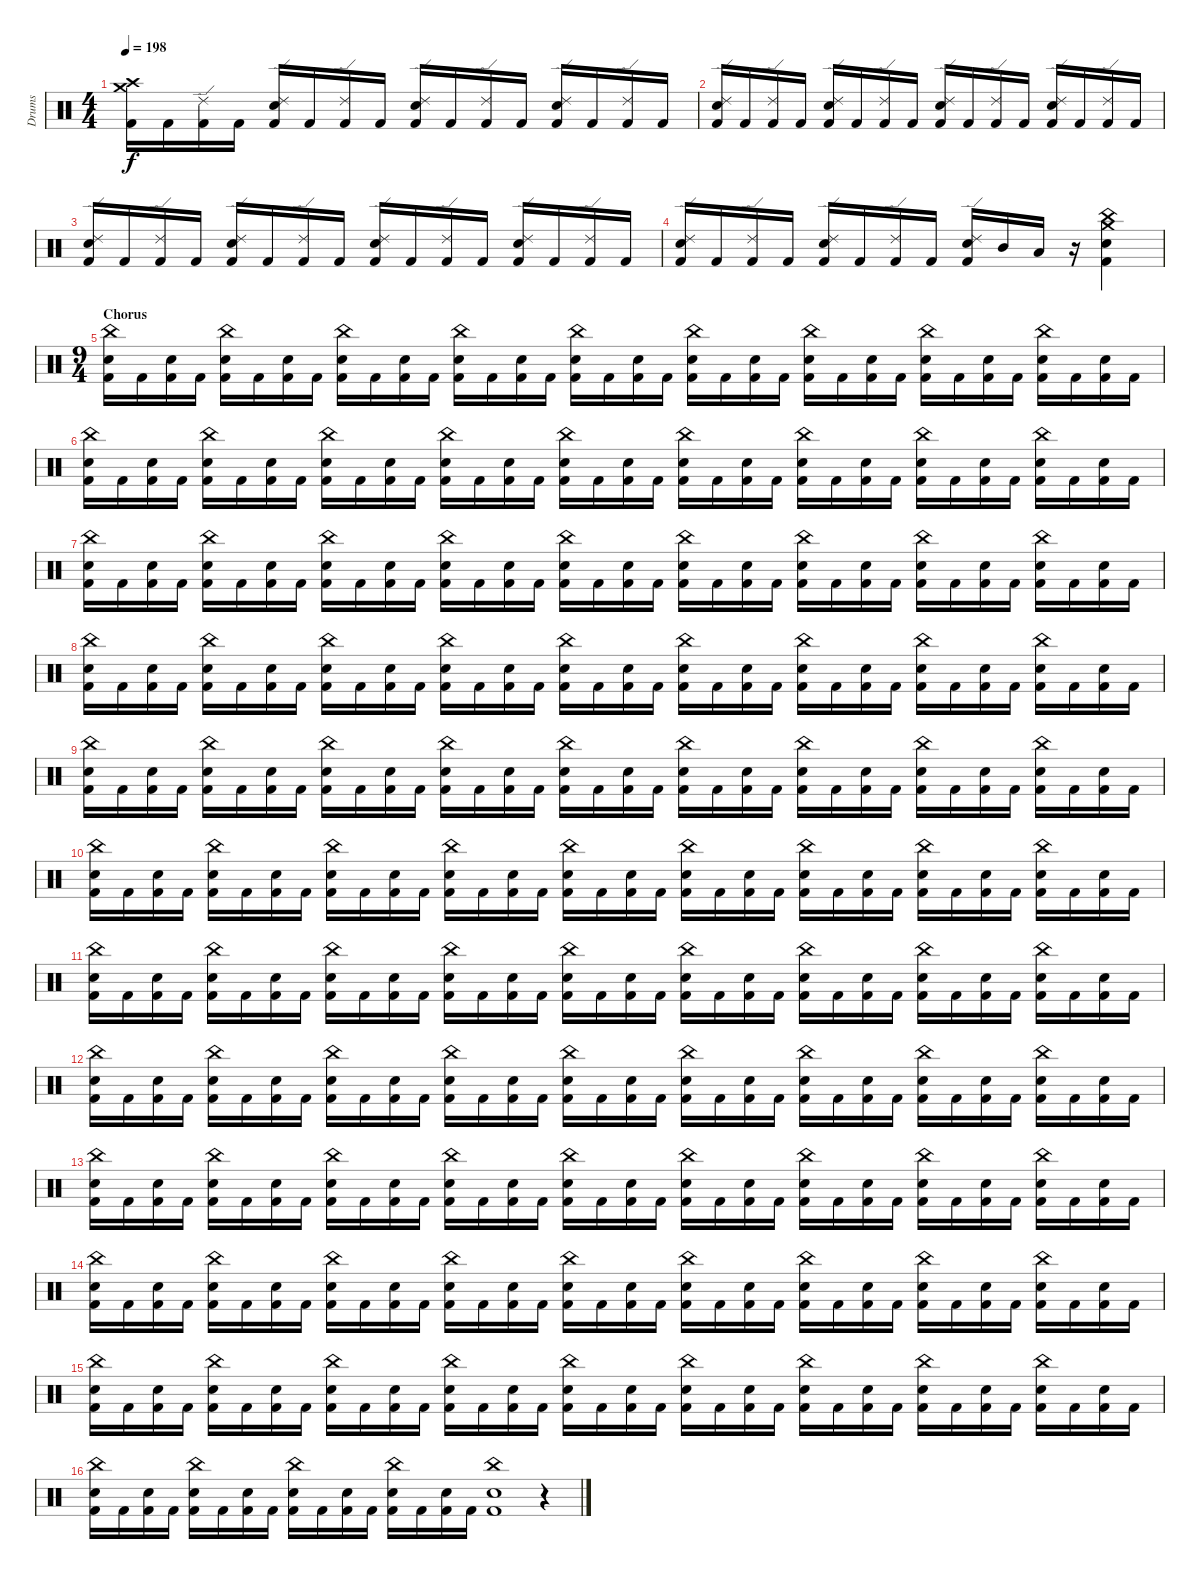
\track ("Drums" "Drums") {instrument percussion}
\staff {score}
\articulation defaults
\ts (4 4)
\tempo 198
\clef neutral
\ks c
("Kick (hit) 2" "Crash high (hit)" "Crash medium (hit)").16{dy f} "Kick (hit) 2".16 ("Kick (hit) 2" "Ride (edge) 2").16 "Kick (hit) 2".16 ("Kick (hit) 2" "Snare (hit) 2" "Ride (edge) 2").16 "Kick (hit) 2".16 ("Kick (hit) 2" "Ride (edge) 2").16 "Kick (hit) 2".16 ("Kick (hit) 2" "Snare (hit) 2" "Ride (edge) 2").16 "Kick (hit) 2".16 ("Kick (hit) 2" "Ride (edge) 2").16 "Kick (hit) 2".16 ("Kick (hit) 2" "Snare (hit) 2" "Ride (edge) 2").16 "Kick (hit) 2".16 ("Kick (hit) 2" "Ride (edge) 2").16 "Kick (hit) 2".16 |
("Kick (hit) 2" "Snare (hit) 2" "Ride (edge) 2").16 "Kick (hit) 2".16 ("Kick (hit) 2" "Ride (edge) 2").16 "Kick (hit) 2".16 ("Kick (hit) 2" "Snare (hit) 2" "Ride (edge) 2").16 "Kick (hit) 2".16 ("Kick (hit) 2" "Ride (edge) 2").16 "Kick (hit) 2".16 ("Kick (hit) 2" "Snare (hit) 2" "Ride (edge) 2").16 "Kick (hit) 2".16 ("Kick (hit) 2" "Ride (edge) 2").16 "Kick (hit) 2".16 ("Kick (hit) 2" "Snare (hit) 2" "Ride (edge) 2").16 "Kick (hit) 2".16 ("Kick (hit) 2" "Ride (edge) 2").16 "Kick (hit) 2".16 |
("Kick (hit) 2" "Snare (hit) 2" "Ride (edge) 2").16 "Kick (hit) 2".16 ("Kick (hit) 2" "Ride (edge) 2").16 "Kick (hit) 2".16 ("Kick (hit) 2" "Snare (hit) 2" "Ride (edge) 2").16 "Kick (hit) 2".16 ("Kick (hit) 2" "Ride (edge) 2").16 "Kick (hit) 2".16 ("Kick (hit) 2" "Snare (hit) 2" "Ride (edge) 2").16 "Kick (hit) 2".16 ("Kick (hit) 2" "Ride (edge) 2").16 "Kick (hit) 2".16 ("Kick (hit) 2" "Snare (hit) 2" "Ride (edge) 2").16 "Kick (hit) 2".16 ("Kick (hit) 2" "Ride (edge) 2").16 "Kick (hit) 2".16 |
("Kick (hit) 2" "Snare (hit) 2" "Ride (edge) 2").16 "Kick (hit) 2".16 ("Kick (hit) 2" "Ride (edge) 2").16 "Kick (hit) 2".16 ("Kick (hit) 2" "Snare (hit) 2" "Ride (edge) 2").16 "Kick (hit) 2".16 ("Kick (hit) 2" "Ride (edge) 2").16 "Kick (hit) 2".16 ("Kick (hit) 2" "Snare (hit) 2" "Ride (edge) 2").16 "Mid Tom (hit)".16 "Low Tom (hit)".16 r.16 ("Kick (hit) 2" "Snare (hit) 2" "China (hit)" "Crash medium (hit)").4 |
\ts (9 4)
\section ("" "Chorus")
("Kick (hit) 2" "Snare (hit) 2" "China (hit)").16 "Kick (hit) 2".16 ("Kick (hit) 2" "Snare (hit) 2").16 "Kick (hit) 2".16 ("Kick (hit) 2" "Snare (hit) 2" "China (hit)").16 "Kick (hit) 2".16 ("Kick (hit) 2" "Snare (hit) 2").16 "Kick (hit) 2".16 ("Kick (hit) 2" "Snare (hit) 2" "China (hit)").16 "Kick (hit) 2".16 ("Kick (hit) 2" "Snare (hit) 2").16 "Kick (hit) 2".16 ("Kick (hit) 2" "Snare (hit) 2" "China (hit)").16 "Kick (hit) 2".16 ("Kick (hit) 2" "Snare (hit) 2").16 "Kick (hit) 2".16 ("Kick (hit) 2" "Snare (hit) 2" "China (hit)").16 "Kick (hit) 2".16 ("Kick (hit) 2" "Snare (hit) 2").16 "Kick (hit) 2".16 ("Kick (hit) 2" "Snare (hit) 2" "China (hit)").16 "Kick (hit) 2".16 ("Kick (hit) 2" "Snare (hit) 2").16 "Kick (hit) 2".16 ("Kick (hit) 2" "Snare (hit) 2" "China (hit)").16 "Kick (hit) 2".16 ("Kick (hit) 2" "Snare (hit) 2").16 "Kick (hit) 2".16 ("Kick (hit) 2" "Snare (hit) 2" "China (hit)").16 "Kick (hit) 2".16 ("Kick (hit) 2" "Snare (hit) 2").16 "Kick (hit) 2".16 ("Kick (hit) 2" "Snare (hit) 2" "China (hit)").16 "Kick (hit) 2".16 ("Kick (hit) 2" "Snare (hit) 2").16 "Kick (hit) 2".16 |
("Kick (hit) 2" "Snare (hit) 2" "China (hit)").16 "Kick (hit) 2".16 ("Kick (hit) 2" "Snare (hit) 2").16 "Kick (hit) 2".16 ("Kick (hit) 2" "Snare (hit) 2" "China (hit)").16 "Kick (hit) 2".16 ("Kick (hit) 2" "Snare (hit) 2").16 "Kick (hit) 2".16 ("Kick (hit) 2" "Snare (hit) 2" "China (hit)").16 "Kick (hit) 2".16 ("Kick (hit) 2" "Snare (hit) 2").16 "Kick (hit) 2".16 ("Kick (hit) 2" "Snare (hit) 2" "China (hit)").16 "Kick (hit) 2".16 ("Kick (hit) 2" "Snare (hit) 2").16 "Kick (hit) 2".16 ("Kick (hit) 2" "Snare (hit) 2" "China (hit)").16 "Kick (hit) 2".16 ("Kick (hit) 2" "Snare (hit) 2").16 "Kick (hit) 2".16 ("Kick (hit) 2" "Snare (hit) 2" "China (hit)").16 "Kick (hit) 2".16 ("Kick (hit) 2" "Snare (hit) 2").16 "Kick (hit) 2".16 ("Kick (hit) 2" "Snare (hit) 2" "China (hit)").16 "Kick (hit) 2".16 ("Kick (hit) 2" "Snare (hit) 2").16 "Kick (hit) 2".16 ("Kick (hit) 2" "Snare (hit) 2" "China (hit)").16 "Kick (hit) 2".16 ("Kick (hit) 2" "Snare (hit) 2").16 "Kick (hit) 2".16 ("Kick (hit) 2" "Snare (hit) 2" "China (hit)").16 "Kick (hit) 2".16 ("Kick (hit) 2" "Snare (hit) 2").16 "Kick (hit) 2".16 |
("Kick (hit) 2" "Snare (hit) 2" "China (hit)").16 "Kick (hit) 2".16 ("Kick (hit) 2" "Snare (hit) 2").16 "Kick (hit) 2".16 ("Kick (hit) 2" "Snare (hit) 2" "China (hit)").16 "Kick (hit) 2".16 ("Kick (hit) 2" "Snare (hit) 2").16 "Kick (hit) 2".16 ("Kick (hit) 2" "Snare (hit) 2" "China (hit)").16 "Kick (hit) 2".16 ("Kick (hit) 2" "Snare (hit) 2").16 "Kick (hit) 2".16 ("Kick (hit) 2" "Snare (hit) 2" "China (hit)").16 "Kick (hit) 2".16 ("Kick (hit) 2" "Snare (hit) 2").16 "Kick (hit) 2".16 ("Kick (hit) 2" "Snare (hit) 2" "China (hit)").16 "Kick (hit) 2".16 ("Kick (hit) 2" "Snare (hit) 2").16 "Kick (hit) 2".16 ("Kick (hit) 2" "Snare (hit) 2" "China (hit)").16 "Kick (hit) 2".16 ("Kick (hit) 2" "Snare (hit) 2").16 "Kick (hit) 2".16 ("Kick (hit) 2" "Snare (hit) 2" "China (hit)").16 "Kick (hit) 2".16 ("Kick (hit) 2" "Snare (hit) 2").16 "Kick (hit) 2".16 ("Kick (hit) 2" "Snare (hit) 2" "China (hit)").16 "Kick (hit) 2".16 ("Kick (hit) 2" "Snare (hit) 2").16 "Kick (hit) 2".16 ("Kick (hit) 2" "Snare (hit) 2" "China (hit)").16 "Kick (hit) 2".16 ("Kick (hit) 2" "Snare (hit) 2").16 "Kick (hit) 2".16 |
("Kick (hit) 2" "Snare (hit) 2" "China (hit)").16 "Kick (hit) 2".16 ("Kick (hit) 2" "Snare (hit) 2").16 "Kick (hit) 2".16 ("Kick (hit) 2" "Snare (hit) 2" "China (hit)").16 "Kick (hit) 2".16 ("Kick (hit) 2" "Snare (hit) 2").16 "Kick (hit) 2".16 ("Kick (hit) 2" "Snare (hit) 2" "China (hit)").16 "Kick (hit) 2".16 ("Kick (hit) 2" "Snare (hit) 2").16 "Kick (hit) 2".16 ("Kick (hit) 2" "Snare (hit) 2" "China (hit)").16 "Kick (hit) 2".16 ("Kick (hit) 2" "Snare (hit) 2").16 "Kick (hit) 2".16 ("Kick (hit) 2" "Snare (hit) 2" "China (hit)").16 "Kick (hit) 2".16 ("Kick (hit) 2" "Snare (hit) 2").16 "Kick (hit) 2".16 ("Kick (hit) 2" "Snare (hit) 2" "China (hit)").16 "Kick (hit) 2".16 ("Kick (hit) 2" "Snare (hit) 2").16 "Kick (hit) 2".16 ("Kick (hit) 2" "Snare (hit) 2" "China (hit)").16 "Kick (hit) 2".16 ("Kick (hit) 2" "Snare (hit) 2").16 "Kick (hit) 2".16 ("Kick (hit) 2" "Snare (hit) 2" "China (hit)").16 "Kick (hit) 2".16 ("Kick (hit) 2" "Snare (hit) 2").16 "Kick (hit) 2".16 ("Kick (hit) 2" "Snare (hit) 2" "China (hit)").16 "Kick (hit) 2".16 ("Kick (hit) 2" "Snare (hit) 2").16 "Kick (hit) 2".16 |
("Kick (hit) 2" "Snare (hit) 2" "China (hit)").16 "Kick (hit) 2".16 ("Kick (hit) 2" "Snare (hit) 2").16 "Kick (hit) 2".16 ("Kick (hit) 2" "Snare (hit) 2" "China (hit)").16 "Kick (hit) 2".16 ("Kick (hit) 2" "Snare (hit) 2").16 "Kick (hit) 2".16 ("Kick (hit) 2" "Snare (hit) 2" "China (hit)").16 "Kick (hit) 2".16 ("Kick (hit) 2" "Snare (hit) 2").16 "Kick (hit) 2".16 ("Kick (hit) 2" "Snare (hit) 2" "China (hit)").16 "Kick (hit) 2".16 ("Kick (hit) 2" "Snare (hit) 2").16 "Kick (hit) 2".16 ("Kick (hit) 2" "Snare (hit) 2" "China (hit)").16 "Kick (hit) 2".16 ("Kick (hit) 2" "Snare (hit) 2").16 "Kick (hit) 2".16 ("Kick (hit) 2" "Snare (hit) 2" "China (hit)").16 "Kick (hit) 2".16 ("Kick (hit) 2" "Snare (hit) 2").16 "Kick (hit) 2".16 ("Kick (hit) 2" "Snare (hit) 2" "China (hit)").16 "Kick (hit) 2".16 ("Kick (hit) 2" "Snare (hit) 2").16 "Kick (hit) 2".16 ("Kick (hit) 2" "Snare (hit) 2" "China (hit)").16 "Kick (hit) 2".16 ("Kick (hit) 2" "Snare (hit) 2").16 "Kick (hit) 2".16 ("Kick (hit) 2" "Snare (hit) 2" "China (hit)").16 "Kick (hit) 2".16 ("Kick (hit) 2" "Snare (hit) 2").16 "Kick (hit) 2".16 |
("Kick (hit) 2" "Snare (hit) 2" "China (hit)").16 "Kick (hit) 2".16 ("Kick (hit) 2" "Snare (hit) 2").16 "Kick (hit) 2".16 ("Kick (hit) 2" "Snare (hit) 2" "China (hit)").16 "Kick (hit) 2".16 ("Kick (hit) 2" "Snare (hit) 2").16 "Kick (hit) 2".16 ("Kick (hit) 2" "Snare (hit) 2" "China (hit)").16 "Kick (hit) 2".16 ("Kick (hit) 2" "Snare (hit) 2").16 "Kick (hit) 2".16 ("Kick (hit) 2" "Snare (hit) 2" "China (hit)").16 "Kick (hit) 2".16 ("Kick (hit) 2" "Snare (hit) 2").16 "Kick (hit) 2".16 ("Kick (hit) 2" "Snare (hit) 2" "China (hit)").16 "Kick (hit) 2".16 ("Kick (hit) 2" "Snare (hit) 2").16 "Kick (hit) 2".16 ("Kick (hit) 2" "Snare (hit) 2" "China (hit)").16 "Kick (hit) 2".16 ("Kick (hit) 2" "Snare (hit) 2").16 "Kick (hit) 2".16 ("Kick (hit) 2" "Snare (hit) 2" "China (hit)").16 "Kick (hit) 2".16 ("Kick (hit) 2" "Snare (hit) 2").16 "Kick (hit) 2".16 ("Kick (hit) 2" "Snare (hit) 2" "China (hit)").16 "Kick (hit) 2".16 ("Kick (hit) 2" "Snare (hit) 2").16 "Kick (hit) 2".16 ("Kick (hit) 2" "Snare (hit) 2" "China (hit)").16 "Kick (hit) 2".16 ("Kick (hit) 2" "Snare (hit) 2").16 "Kick (hit) 2".16 |
("Kick (hit) 2" "Snare (hit) 2" "China (hit)").16 "Kick (hit) 2".16 ("Kick (hit) 2" "Snare (hit) 2").16 "Kick (hit) 2".16 ("Kick (hit) 2" "Snare (hit) 2" "China (hit)").16 "Kick (hit) 2".16 ("Kick (hit) 2" "Snare (hit) 2").16 "Kick (hit) 2".16 ("Kick (hit) 2" "Snare (hit) 2" "China (hit)").16 "Kick (hit) 2".16 ("Kick (hit) 2" "Snare (hit) 2").16 "Kick (hit) 2".16 ("Kick (hit) 2" "Snare (hit) 2" "China (hit)").16 "Kick (hit) 2".16 ("Kick (hit) 2" "Snare (hit) 2").16 "Kick (hit) 2".16 ("Kick (hit) 2" "Snare (hit) 2" "China (hit)").16 "Kick (hit) 2".16 ("Kick (hit) 2" "Snare (hit) 2").16 "Kick (hit) 2".16 ("Kick (hit) 2" "Snare (hit) 2" "China (hit)").16 "Kick (hit) 2".16 ("Kick (hit) 2" "Snare (hit) 2").16 "Kick (hit) 2".16 ("Kick (hit) 2" "Snare (hit) 2" "China (hit)").16 "Kick (hit) 2".16 ("Kick (hit) 2" "Snare (hit) 2").16 "Kick (hit) 2".16 ("Kick (hit) 2" "Snare (hit) 2" "China (hit)").16 "Kick (hit) 2".16 ("Kick (hit) 2" "Snare (hit) 2").16 "Kick (hit) 2".16 ("Kick (hit) 2" "Snare (hit) 2" "China (hit)").16 "Kick (hit) 2".16 ("Kick (hit) 2" "Snare (hit) 2").16 "Kick (hit) 2".16 |
("Kick (hit) 2" "Snare (hit) 2" "China (hit)").16 "Kick (hit) 2".16 ("Kick (hit) 2" "Snare (hit) 2").16 "Kick (hit) 2".16 ("Kick (hit) 2" "Snare (hit) 2" "China (hit)").16 "Kick (hit) 2".16 ("Kick (hit) 2" "Snare (hit) 2").16 "Kick (hit) 2".16 ("Kick (hit) 2" "Snare (hit) 2" "China (hit)").16 "Kick (hit) 2".16 ("Kick (hit) 2" "Snare (hit) 2").16 "Kick (hit) 2".16 ("Kick (hit) 2" "Snare (hit) 2" "China (hit)").16 "Kick (hit) 2".16 ("Kick (hit) 2" "Snare (hit) 2").16 "Kick (hit) 2".16 ("Kick (hit) 2" "Snare (hit) 2" "China (hit)").16 "Kick (hit) 2".16 ("Kick (hit) 2" "Snare (hit) 2").16 "Kick (hit) 2".16 ("Kick (hit) 2" "Snare (hit) 2" "China (hit)").16 "Kick (hit) 2".16 ("Kick (hit) 2" "Snare (hit) 2").16 "Kick (hit) 2".16 ("Kick (hit) 2" "Snare (hit) 2" "China (hit)").16 "Kick (hit) 2".16 ("Kick (hit) 2" "Snare (hit) 2").16 "Kick (hit) 2".16 ("Kick (hit) 2" "Snare (hit) 2" "China (hit)").16 "Kick (hit) 2".16 ("Kick (hit) 2" "Snare (hit) 2").16 "Kick (hit) 2".16 ("Kick (hit) 2" "Snare (hit) 2" "China (hit)").16 "Kick (hit) 2".16 ("Kick (hit) 2" "Snare (hit) 2").16 "Kick (hit) 2".16 |
("Kick (hit) 2" "Snare (hit) 2" "China (hit)").16 "Kick (hit) 2".16 ("Kick (hit) 2" "Snare (hit) 2").16 "Kick (hit) 2".16 ("Kick (hit) 2" "Snare (hit) 2" "China (hit)").16 "Kick (hit) 2".16 ("Kick (hit) 2" "Snare (hit) 2").16 "Kick (hit) 2".16 ("Kick (hit) 2" "Snare (hit) 2" "China (hit)").16 "Kick (hit) 2".16 ("Kick (hit) 2" "Snare (hit) 2").16 "Kick (hit) 2".16 ("Kick (hit) 2" "Snare (hit) 2" "China (hit)").16 "Kick (hit) 2".16 ("Kick (hit) 2" "Snare (hit) 2").16 "Kick (hit) 2".16 ("Kick (hit) 2" "Snare (hit) 2" "China (hit)").16 "Kick (hit) 2".16 ("Kick (hit) 2" "Snare (hit) 2").16 "Kick (hit) 2".16 ("Kick (hit) 2" "Snare (hit) 2" "China (hit)").16 "Kick (hit) 2".16 ("Kick (hit) 2" "Snare (hit) 2").16 "Kick (hit) 2".16 ("Kick (hit) 2" "Snare (hit) 2" "China (hit)").16 "Kick (hit) 2".16 ("Kick (hit) 2" "Snare (hit) 2").16 "Kick (hit) 2".16 ("Kick (hit) 2" "Snare (hit) 2" "China (hit)").16 "Kick (hit) 2".16 ("Kick (hit) 2" "Snare (hit) 2").16 "Kick (hit) 2".16 ("Kick (hit) 2" "Snare (hit) 2" "China (hit)").16 "Kick (hit) 2".16 ("Kick (hit) 2" "Snare (hit) 2").16 "Kick (hit) 2".16 |
("Kick (hit) 2" "Snare (hit) 2" "China (hit)").16 "Kick (hit) 2".16 ("Kick (hit) 2" "Snare (hit) 2").16 "Kick (hit) 2".16 ("Kick (hit) 2" "Snare (hit) 2" "China (hit)").16 "Kick (hit) 2".16 ("Kick (hit) 2" "Snare (hit) 2").16 "Kick (hit) 2".16 ("Kick (hit) 2" "Snare (hit) 2" "China (hit)").16 "Kick (hit) 2".16 ("Kick (hit) 2" "Snare (hit) 2").16 "Kick (hit) 2".16 ("Kick (hit) 2" "Snare (hit) 2" "China (hit)").16 "Kick (hit) 2".16 ("Kick (hit) 2" "Snare (hit) 2").16 "Kick (hit) 2".16 ("Kick (hit) 2" "Snare (hit) 2" "China (hit)").16 "Kick (hit) 2".16 ("Kick (hit) 2" "Snare (hit) 2").16 "Kick (hit) 2".16 ("Kick (hit) 2" "Snare (hit) 2" "China (hit)").16 "Kick (hit) 2".16 ("Kick (hit) 2" "Snare (hit) 2").16 "Kick (hit) 2".16 ("Kick (hit) 2" "Snare (hit) 2" "China (hit)").16 "Kick (hit) 2".16 ("Kick (hit) 2" "Snare (hit) 2").16 "Kick (hit) 2".16 ("Kick (hit) 2" "Snare (hit) 2" "China (hit)").16 "Kick (hit) 2".16 ("Kick (hit) 2" "Snare (hit) 2").16 "Kick (hit) 2".16 ("Kick (hit) 2" "Snare (hit) 2" "China (hit)").16 "Kick (hit) 2".16 ("Kick (hit) 2" "Snare (hit) 2").16 "Kick (hit) 2".16 |
("Kick (hit) 2" "Snare (hit) 2" "China (hit)").16 "Kick (hit) 2".16 ("Kick (hit) 2" "Snare (hit) 2").16 "Kick (hit) 2".16 ("Kick (hit) 2" "Snare (hit) 2" "China (hit)").16 "Kick (hit) 2".16 ("Kick (hit) 2" "Snare (hit) 2").16 "Kick (hit) 2".16 ("Kick (hit) 2" "Snare (hit) 2" "China (hit)").16 "Kick (hit) 2".16 ("Kick (hit) 2" "Snare (hit) 2").16 "Kick (hit) 2".16 ("Kick (hit) 2" "Snare (hit) 2" "China (hit)").16 "Kick (hit) 2".16 ("Kick (hit) 2" "Snare (hit) 2").16 "Kick (hit) 2".16 ("Kick (hit) 2" "Snare (hit) 2" "China (hit)").16 "Kick (hit) 2".16 ("Kick (hit) 2" "Snare (hit) 2").16 "Kick (hit) 2".16 ("Kick (hit) 2" "Snare (hit) 2" "China (hit)").16 "Kick (hit) 2".16 ("Kick (hit) 2" "Snare (hit) 2").16 "Kick (hit) 2".16 ("Kick (hit) 2" "Snare (hit) 2" "China (hit)").16 "Kick (hit) 2".16 ("Kick (hit) 2" "Snare (hit) 2").16 "Kick (hit) 2".16 ("Kick (hit) 2" "Snare (hit) 2" "China (hit)").16 "Kick (hit) 2".16 ("Kick (hit) 2" "Snare (hit) 2").16 "Kick (hit) 2".16 ("Kick (hit) 2" "Snare (hit) 2" "China (hit)").16 "Kick (hit) 2".16 ("Kick (hit) 2" "Snare (hit) 2").16 "Kick (hit) 2".16 |
("Kick (hit) 2" "Snare (hit) 2" "China (hit)").16 "Kick (hit) 2".16 ("Kick (hit) 2" "Snare (hit) 2").16 "Kick (hit) 2".16 ("Kick (hit) 2" "Snare (hit) 2" "China (hit)").16 "Kick (hit) 2".16 ("Kick (hit) 2" "Snare (hit) 2").16 "Kick (hit) 2".16 ("Kick (hit) 2" "Snare (hit) 2" "China (hit)").16 "Kick (hit) 2".16 ("Kick (hit) 2" "Snare (hit) 2").16 "Kick (hit) 2".16 ("Kick (hit) 2" "Snare (hit) 2" "China (hit)").16 "Kick (hit) 2".16 ("Kick (hit) 2" "Snare (hit) 2").16 "Kick (hit) 2".16 ("Kick (hit) 2" "Snare (hit) 2" "China (hit)").1 r.4
